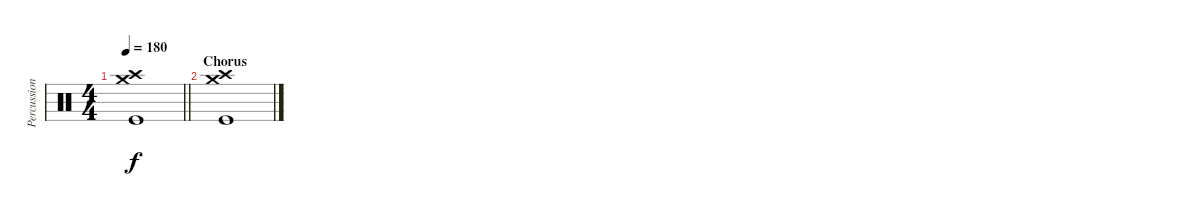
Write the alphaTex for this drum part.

\track ("Percussion" "Percussion") {instrument percussion}
\staff {score}
\articulation defaults
\ts (4 4)
\tempo 180
\clef neutral
\barLineRight lightlight
\ks c
("Crash medium (hit)" "Crash high (hit)" "Kick (hit)").1{dy f} |
\section ("" "Chorus")
("Crash medium (hit)" "Crash high (hit)" "Kick (hit)").1
